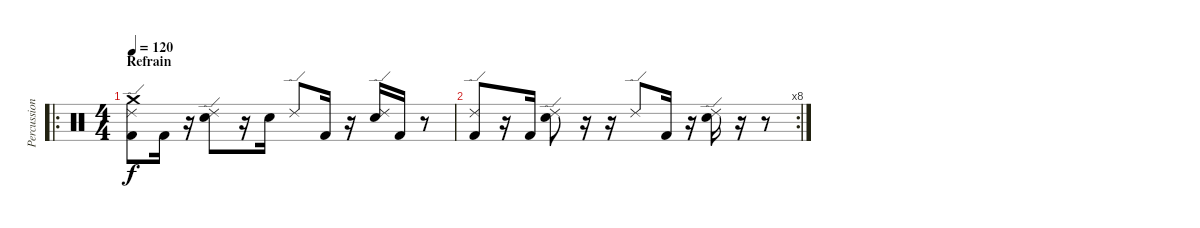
\track ("Percussions" "Percussion") {instrument percussion}
\staff {score}
\articulation defaults
\ro
\ts (4 4)
\section ("" "Refrain")
\tempo 120
\clef neutral
\ks c
("Crash medium (hit)" "Ride (edge) 2" "Kick (hit) 2").8{dy f} "Kick (hit) 2".16 r.16 ("Ride (edge) 2" "Electric Snare (hit)").8 r.16 "Electric Snare (hit)".16 "Ride (edge) 2".8 "Kick (hit) 2".16 r.16 ("Ride (edge) 2" "Electric Snare (hit)").16 "Kick (hit) 2".16 r.8 |
\rc 8
("Ride (edge) 2" "Kick (hit) 2").8 r.16 "Kick (hit) 2".16 ("Ride (edge) 2" "Electric Snare (hit)").8 r.16 r.16 "Ride (edge) 2".8 "Kick (hit) 2".16 r.16 ("Ride (edge) 2" "Electric Snare (hit)").16 r.16 r.8
